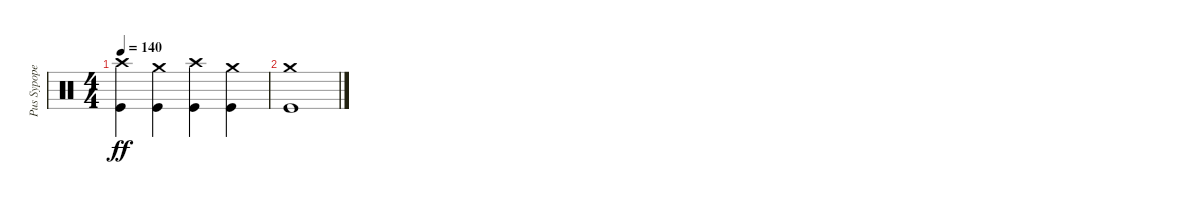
\track ("Pus Sypope" "Pus Sypope") {instrument percussion}
\staff {score}
\articulation defaults
\ts (4 4)
\tempo 140
\clef neutral
\ks c
("Crash high (hit)" "Kick (hit)").4{dy ff} ("Crash medium (hit)" "Kick (hit)").4 ("Crash high (hit)" "Kick (hit)").4 ("Crash medium (hit)" "Kick (hit)").4 |
("Crash medium (hit)" "Kick (hit)").1
